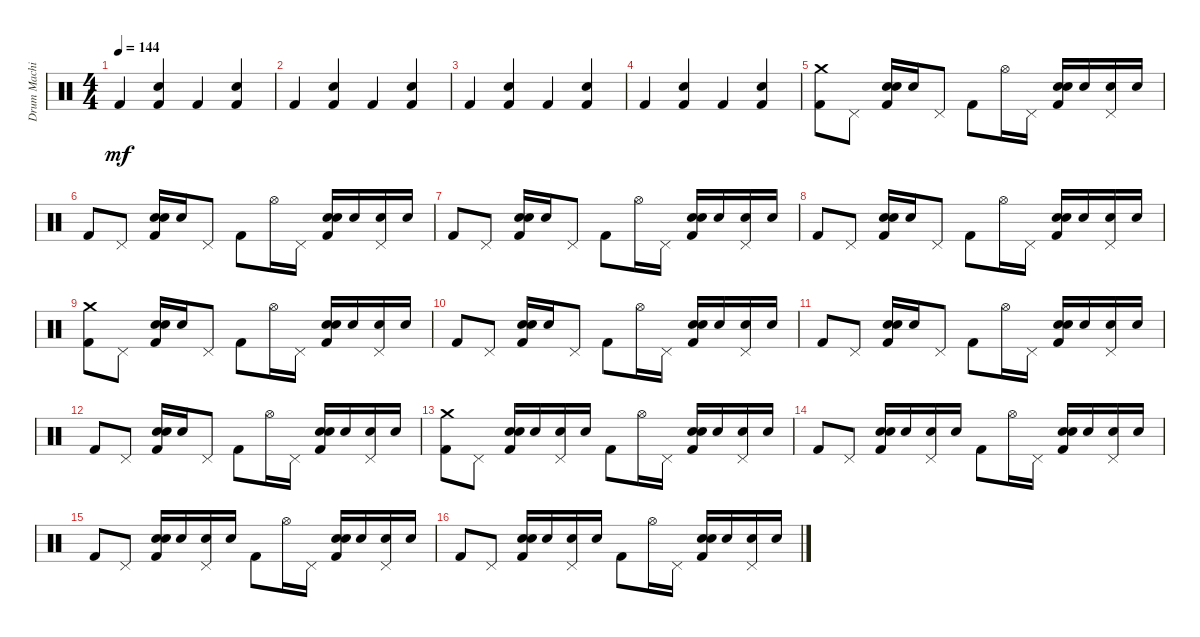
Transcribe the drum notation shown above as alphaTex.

\track ("Drum Machine" "Drum Machi") {instrument percussion}
\staff {score}
\articulation defaults
\ts (4 4)
\tempo 144
\clef neutral
\ks c "Kick (hit) 2".4{dy mf}
("Hand Clap (hit)" "Kick (hit) 2").4 "Kick (hit) 2".4 ("Hand Clap (hit)" "Kick (hit) 2").4 |
"Kick (hit) 2".4 ("Hand Clap (hit)" "Kick (hit) 2").4 "Kick (hit) 2".4 ("Hand Clap (hit)" "Kick (hit) 2").4 |
"Kick (hit) 2".4 ("Hand Clap (hit)" "Kick (hit) 2").4 "Kick (hit) 2".4 ("Hand Clap (hit)" "Kick (hit) 2").4 |
"Kick (hit) 2".4 ("Hand Clap (hit)" "Kick (hit) 2").4 "Kick (hit) 2".4 ("Hand Clap (hit)" "Kick (hit) 2").4 |
("Crash medium (hit)" "Kick (hit) 2").8 "Pedal Hi-Hat (hit)".8 ("Hand Clap (hit)" "Electric Snare (hit)" "Kick (hit) 2").16 "Hand Clap (hit)".16 "Pedal Hi-Hat (hit)".8 "Kick (hit) 2".8 "Hi-Hat (open)".16 "Pedal Hi-Hat (hit)".16 ("Hand Clap (hit)" "Electric Snare (hit)" "Kick (hit) 2").16 "Hand Clap (hit)".16 ("Pedal Hi-Hat (hit)" "Hand Clap (hit)").16 "Hand Clap (hit)".16 |
"Kick (hit) 2".8 "Pedal Hi-Hat (hit)".8 ("Hand Clap (hit)" "Electric Snare (hit)" "Kick (hit) 2").16 "Hand Clap (hit)".16 "Pedal Hi-Hat (hit)".8 "Kick (hit) 2".8 "Hi-Hat (open)".16 "Pedal Hi-Hat (hit)".16 ("Hand Clap (hit)" "Electric Snare (hit)" "Kick (hit) 2").16 "Hand Clap (hit)".16 ("Pedal Hi-Hat (hit)" "Hand Clap (hit)").16 "Hand Clap (hit)".16 |
"Kick (hit) 2".8 "Pedal Hi-Hat (hit)".8 ("Hand Clap (hit)" "Electric Snare (hit)" "Kick (hit) 2").16 "Hand Clap (hit)".16 "Pedal Hi-Hat (hit)".8 "Kick (hit) 2".8 "Hi-Hat (open)".16 "Pedal Hi-Hat (hit)".16 ("Hand Clap (hit)" "Electric Snare (hit)" "Kick (hit) 2").16 "Hand Clap (hit)".16 ("Pedal Hi-Hat (hit)" "Hand Clap (hit)").16 "Hand Clap (hit)".16 |
"Kick (hit) 2".8 "Pedal Hi-Hat (hit)".8 ("Hand Clap (hit)" "Electric Snare (hit)" "Kick (hit) 2").16 "Hand Clap (hit)".16 "Pedal Hi-Hat (hit)".8 "Kick (hit) 2".8 "Hi-Hat (open)".16 "Pedal Hi-Hat (hit)".16 ("Hand Clap (hit)" "Electric Snare (hit)" "Kick (hit) 2").16 "Hand Clap (hit)".16 ("Pedal Hi-Hat (hit)" "Hand Clap (hit)").16 "Hand Clap (hit)".16 |
("Crash medium (hit)" "Kick (hit) 2").8 "Pedal Hi-Hat (hit)".8 ("Hand Clap (hit)" "Electric Snare (hit)" "Kick (hit) 2").16 "Hand Clap (hit)".16 "Pedal Hi-Hat (hit)".8 "Kick (hit) 2".8 "Hi-Hat (open)".16 "Pedal Hi-Hat (hit)".16 ("Hand Clap (hit)" "Electric Snare (hit)" "Kick (hit) 2").16 "Hand Clap (hit)".16 ("Pedal Hi-Hat (hit)" "Hand Clap (hit)").16 "Hand Clap (hit)".16 |
"Kick (hit) 2".8 "Pedal Hi-Hat (hit)".8 ("Hand Clap (hit)" "Electric Snare (hit)" "Kick (hit) 2").16 "Hand Clap (hit)".16 "Pedal Hi-Hat (hit)".8 "Kick (hit) 2".8 "Hi-Hat (open)".16 "Pedal Hi-Hat (hit)".16 ("Hand Clap (hit)" "Electric Snare (hit)" "Kick (hit) 2").16 "Hand Clap (hit)".16 ("Pedal Hi-Hat (hit)" "Hand Clap (hit)").16 "Hand Clap (hit)".16 |
"Kick (hit) 2".8 "Pedal Hi-Hat (hit)".8 ("Hand Clap (hit)" "Electric Snare (hit)" "Kick (hit) 2").16 "Hand Clap (hit)".16 "Pedal Hi-Hat (hit)".8 "Kick (hit) 2".8 "Hi-Hat (open)".16 "Pedal Hi-Hat (hit)".16 ("Hand Clap (hit)" "Electric Snare (hit)" "Kick (hit) 2").16 "Hand Clap (hit)".16 ("Pedal Hi-Hat (hit)" "Hand Clap (hit)").16 "Hand Clap (hit)".16 |
"Kick (hit) 2".8 "Pedal Hi-Hat (hit)".8 ("Hand Clap (hit)" "Electric Snare (hit)" "Kick (hit) 2").16 "Hand Clap (hit)".16 "Pedal Hi-Hat (hit)".8 "Kick (hit) 2".8 "Hi-Hat (open)".16 "Pedal Hi-Hat (hit)".16 ("Hand Clap (hit)" "Electric Snare (hit)" "Kick (hit) 2").16 "Hand Clap (hit)".16 ("Pedal Hi-Hat (hit)" "Hand Clap (hit)").16 "Hand Clap (hit)".16 |
("Crash medium (hit)" "Kick (hit) 2").8 "Pedal Hi-Hat (hit)".8 ("Hand Clap (hit)" "Electric Snare (hit)" "Kick (hit) 2").16 "Hand Clap (hit)".16 ("Pedal Hi-Hat (hit)" "Hand Clap (hit)").16 "Hand Clap (hit)".16 "Kick (hit) 2".8 "Hi-Hat (open)".16 "Pedal Hi-Hat (hit)".16 ("Hand Clap (hit)" "Electric Snare (hit)" "Kick (hit) 2").16 "Hand Clap (hit)".16 ("Pedal Hi-Hat (hit)" "Hand Clap (hit)").16 "Hand Clap (hit)".16 |
"Kick (hit) 2".8 "Pedal Hi-Hat (hit)".8 ("Hand Clap (hit)" "Electric Snare (hit)" "Kick (hit) 2").16 "Hand Clap (hit)".16 ("Pedal Hi-Hat (hit)" "Hand Clap (hit)").16 "Hand Clap (hit)".16 "Kick (hit) 2".8 "Hi-Hat (open)".16 "Pedal Hi-Hat (hit)".16 ("Hand Clap (hit)" "Electric Snare (hit)" "Kick (hit) 2").16 "Hand Clap (hit)".16 ("Pedal Hi-Hat (hit)" "Hand Clap (hit)").16 "Hand Clap (hit)".16 |
"Kick (hit) 2".8 "Pedal Hi-Hat (hit)".8 ("Hand Clap (hit)" "Electric Snare (hit)" "Kick (hit) 2").16 "Hand Clap (hit)".16 ("Pedal Hi-Hat (hit)" "Hand Clap (hit)").16 "Hand Clap (hit)".16 "Kick (hit) 2".8 "Hi-Hat (open)".16 "Pedal Hi-Hat (hit)".16 ("Hand Clap (hit)" "Electric Snare (hit)" "Kick (hit) 2").16 "Hand Clap (hit)".16 ("Pedal Hi-Hat (hit)" "Hand Clap (hit)").16 "Hand Clap (hit)".16 |
"Kick (hit) 2".8 "Pedal Hi-Hat (hit)".8 ("Hand Clap (hit)" "Electric Snare (hit)" "Kick (hit) 2").16 "Hand Clap (hit)".16 ("Pedal Hi-Hat (hit)" "Hand Clap (hit)").16 "Hand Clap (hit)".16 "Kick (hit) 2".8 "Hi-Hat (open)".16 "Pedal Hi-Hat (hit)".16 ("Hand Clap (hit)" "Electric Snare (hit)" "Kick (hit) 2").16 "Hand Clap (hit)".16 ("Pedal Hi-Hat (hit)" "Hand Clap (hit)").16 "Hand Clap (hit)".16
